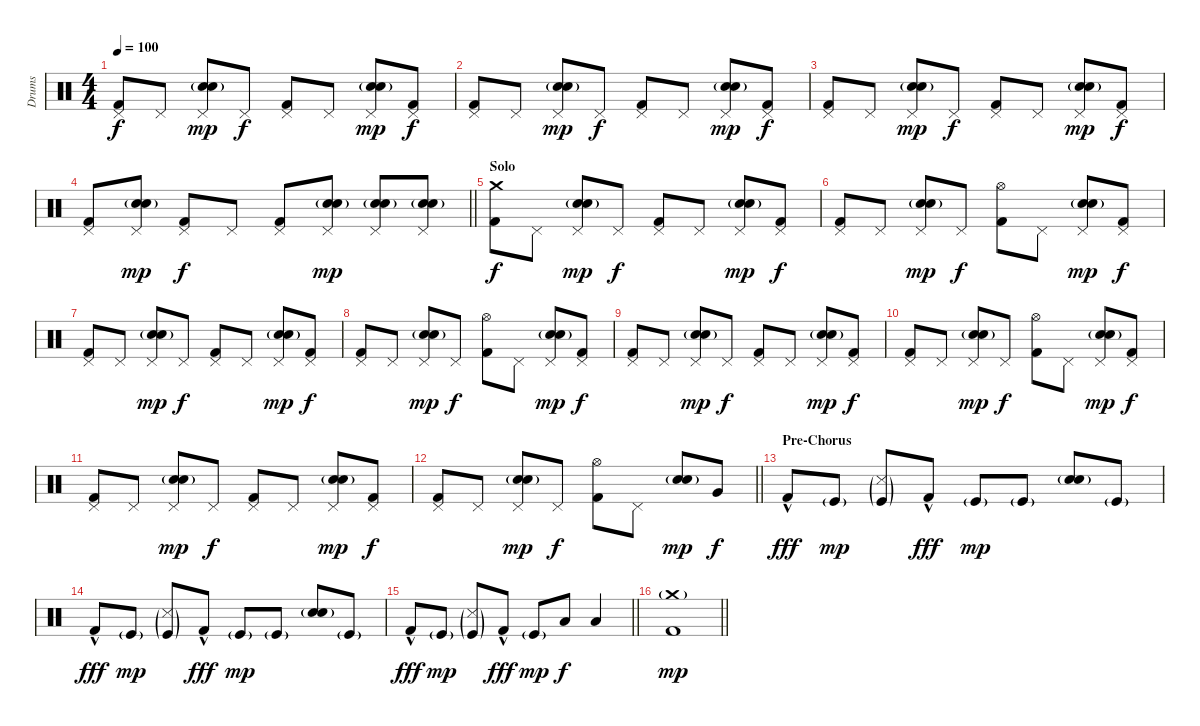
\track ("Drums" "Drums") {instrument percussion}
\staff {score}
\articulation defaults
\ts (4 4)
\tempo 100
\clef neutral
\ks c
("Pedal Hi-Hat (hit)" "Kick (hit) 2").8{dy f} "Pedal Hi-Hat (hit)".8 ("Pedal Hi-Hat (hit)" "Snare (hit) 2" "Electric Snare (hit)"{g}).8{dy mp} "Pedal Hi-Hat (hit)".8{dy f} ("Pedal Hi-Hat (hit)" "Kick (hit) 2").8 "Pedal Hi-Hat (hit)".8 ("Pedal Hi-Hat (hit)" "Snare (hit) 2" "Electric Snare (hit)"{g}).8{dy mp} ("Pedal Hi-Hat (hit)" "Kick (hit) 2").8{dy f} |
("Pedal Hi-Hat (hit)" "Kick (hit) 2").8 "Pedal Hi-Hat (hit)".8 ("Pedal Hi-Hat (hit)" "Snare (hit) 2" "Electric Snare (hit)"{g}).8{dy mp} "Pedal Hi-Hat (hit)".8{dy f} ("Pedal Hi-Hat (hit)" "Kick (hit) 2").8 "Pedal Hi-Hat (hit)".8 ("Pedal Hi-Hat (hit)" "Snare (hit) 2" "Electric Snare (hit)"{g}).8{dy mp} ("Pedal Hi-Hat (hit)" "Kick (hit) 2").8{dy f} |
("Pedal Hi-Hat (hit)" "Kick (hit) 2").8 "Pedal Hi-Hat (hit)".8 ("Pedal Hi-Hat (hit)" "Snare (hit) 2" "Electric Snare (hit)"{g}).8{dy mp} "Pedal Hi-Hat (hit)".8{dy f} ("Pedal Hi-Hat (hit)" "Kick (hit) 2").8 "Pedal Hi-Hat (hit)".8 ("Pedal Hi-Hat (hit)" "Snare (hit) 2" "Electric Snare (hit)"{g}).8{dy mp} ("Pedal Hi-Hat (hit)" "Kick (hit) 2").8{dy f} |
\barLineRight lightlight
("Pedal Hi-Hat (hit)" "Kick (hit) 2").8 ("Pedal Hi-Hat (hit)" "Snare (hit) 2" "Electric Snare (hit)"{g}).8{dy mp} ("Pedal Hi-Hat (hit)" "Kick (hit) 2").8{dy f} "Pedal Hi-Hat (hit)".8 ("Pedal Hi-Hat (hit)" "Kick (hit) 2").8 ("Pedal Hi-Hat (hit)" "Snare (hit) 2" "Electric Snare (hit)"{g}).8{dy mp} ("Pedal Hi-Hat (hit)" "Snare (hit) 2" "Electric Snare (hit)"{g}).8 ("Pedal Hi-Hat (hit)" "Snare (hit) 2" "Electric Snare (hit)"{g}).8 |
\section ("" "Solo")
("Crash medium (hit)" "Kick (hit) 2").8{dy f} "Pedal Hi-Hat (hit)".8 ("Pedal Hi-Hat (hit)" "Snare (hit) 2" "Electric Snare (hit)"{g}).8{dy mp} "Pedal Hi-Hat (hit)".8{dy f} ("Pedal Hi-Hat (hit)" "Kick (hit) 2").8 "Pedal Hi-Hat (hit)".8 ("Pedal Hi-Hat (hit)" "Snare (hit) 2" "Electric Snare (hit)"{g}).8{dy mp} ("Pedal Hi-Hat (hit)" "Kick (hit) 2").8{dy f} |
("Pedal Hi-Hat (hit)" "Kick (hit) 2").8 "Pedal Hi-Hat (hit)".8 ("Pedal Hi-Hat (hit)" "Snare (hit) 2" "Electric Snare (hit)"{g}).8{dy mp} "Pedal Hi-Hat (hit)".8{dy f} ("Hi-Hat (open)" "Kick (hit) 2").8 "Pedal Hi-Hat (hit)".8 ("Pedal Hi-Hat (hit)" "Snare (hit) 2" "Electric Snare (hit)"{g}).8{dy mp} ("Pedal Hi-Hat (hit)" "Kick (hit) 2").8{dy f} |
("Pedal Hi-Hat (hit)" "Kick (hit) 2").8 "Pedal Hi-Hat (hit)".8 ("Pedal Hi-Hat (hit)" "Snare (hit) 2" "Electric Snare (hit)"{g}).8{dy mp} "Pedal Hi-Hat (hit)".8{dy f} ("Pedal Hi-Hat (hit)" "Kick (hit) 2").8 "Pedal Hi-Hat (hit)".8 ("Pedal Hi-Hat (hit)" "Snare (hit) 2" "Electric Snare (hit)"{g}).8{dy mp} ("Pedal Hi-Hat (hit)" "Kick (hit) 2").8{dy f} |
("Pedal Hi-Hat (hit)" "Kick (hit) 2").8 "Pedal Hi-Hat (hit)".8 ("Pedal Hi-Hat (hit)" "Snare (hit) 2" "Electric Snare (hit)"{g}).8{dy mp} "Pedal Hi-Hat (hit)".8{dy f} ("Hi-Hat (open)" "Kick (hit) 2").8 "Pedal Hi-Hat (hit)".8 ("Pedal Hi-Hat (hit)" "Snare (hit) 2" "Electric Snare (hit)"{g}).8{dy mp} ("Pedal Hi-Hat (hit)" "Kick (hit) 2").8{dy f} |
("Pedal Hi-Hat (hit)" "Kick (hit) 2").8 "Pedal Hi-Hat (hit)".8 ("Pedal Hi-Hat (hit)" "Snare (hit) 2" "Electric Snare (hit)"{g}).8{dy mp} "Pedal Hi-Hat (hit)".8{dy f} ("Pedal Hi-Hat (hit)" "Kick (hit) 2").8 "Pedal Hi-Hat (hit)".8 ("Pedal Hi-Hat (hit)" "Snare (hit) 2" "Electric Snare (hit)"{g}).8{dy mp} ("Pedal Hi-Hat (hit)" "Kick (hit) 2").8{dy f} |
("Pedal Hi-Hat (hit)" "Kick (hit) 2").8 "Pedal Hi-Hat (hit)".8 ("Pedal Hi-Hat (hit)" "Snare (hit) 2" "Electric Snare (hit)"{g}).8{dy mp} "Pedal Hi-Hat (hit)".8{dy f} ("Hi-Hat (open)" "Kick (hit) 2").8 "Pedal Hi-Hat (hit)".8 ("Pedal Hi-Hat (hit)" "Snare (hit) 2" "Electric Snare (hit)"{g}).8{dy mp} ("Pedal Hi-Hat (hit)" "Kick (hit) 2").8{dy f} |
("Pedal Hi-Hat (hit)" "Kick (hit) 2").8 "Pedal Hi-Hat (hit)".8 ("Pedal Hi-Hat (hit)" "Snare (hit) 2" "Electric Snare (hit)"{g}).8{dy mp} "Pedal Hi-Hat (hit)".8{dy f} ("Pedal Hi-Hat (hit)" "Kick (hit) 2").8 "Pedal Hi-Hat (hit)".8 ("Pedal Hi-Hat (hit)" "Snare (hit) 2" "Electric Snare (hit)"{g}).8{dy mp} ("Pedal Hi-Hat (hit)" "Kick (hit) 2").8{dy f} |
\barLineRight lightlight
("Pedal Hi-Hat (hit)" "Kick (hit) 2").8 "Pedal Hi-Hat (hit)".8 ("Pedal Hi-Hat (hit)" "Snare (hit) 2" "Electric Snare (hit)"{g}).8{dy mp} "Pedal Hi-Hat (hit)".8{dy f} ("Hi-Hat (open)" "Kick (hit) 2").8 "Pedal Hi-Hat (hit)".8 ("Snare (hit) 2" "Electric Snare (hit)"{g}).8{dy mp} "Very Low Tom (hit)".8{dy f} |
\section ("" "Pre-Chorus")
"Kick (hit) 2"{hac}.8{dy fff} "Kick (hit)"{g}.8{dy mp} ("Snare (side stick) 3"{g} "Kick (hit)"{g}).8 "Kick (hit) 2"{hac}.8{dy fff} "Kick (hit)"{g}.8{dy mp} "Kick (hit)"{g}.8 ("Snare (hit) 2" "Electric Snare (hit)"{g}).8 "Kick (hit)"{g}.8 |
"Kick (hit) 2"{hac}.8{dy fff} "Kick (hit)"{g}.8{dy mp} ("Snare (side stick) 3"{g} "Kick (hit)"{g}).8 "Kick (hit) 2"{hac}.8{dy fff} "Kick (hit)"{g}.8{dy mp} "Kick (hit)"{g}.8 ("Snare (hit) 2" "Electric Snare (hit)"{g}).8 "Kick (hit)"{g}.8 |
\barLineRight lightlight "Kick (hit) 2"{hac}.8{dy fff} "Kick (hit)"{g}.8{dy mp}
("Snare (side stick) 3"{g} "Kick (hit)"{g}).8 "Kick (hit) 2"{hac}.8{dy fff} "Kick (hit)"{g}.8{dy mp} "Low Tom (hit)".8{dy f} "Low Floor Tom (hit)".4 |
\barLineRight lightlight
("Crash medium (hit)"{g} "Kick (hit) 2").1{dy mp}
